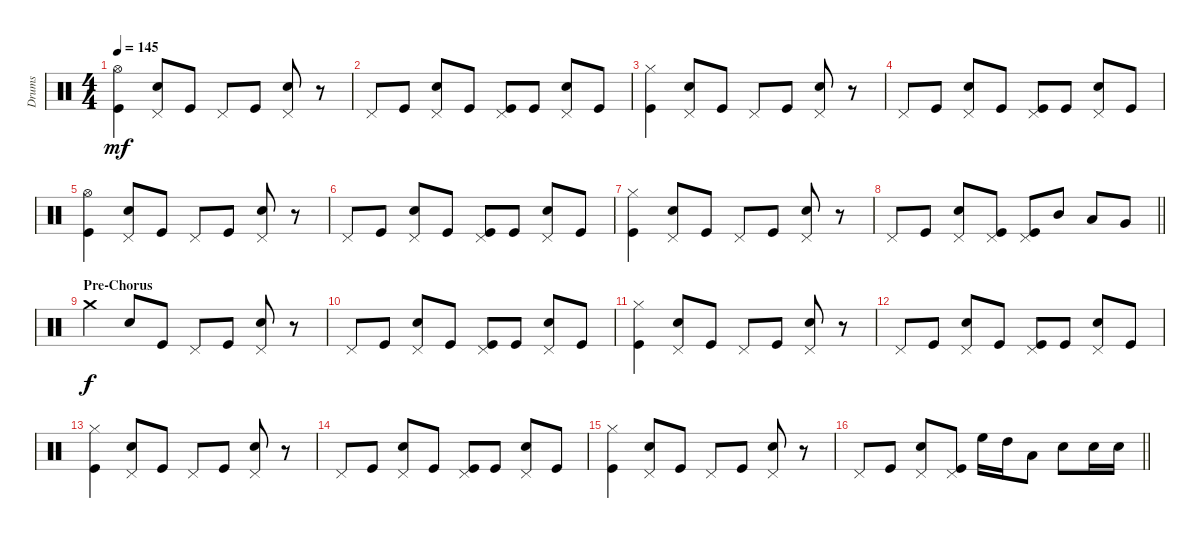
\track ("Drums" "Drums") {instrument percussion}
\staff {score}
\articulation defaults
\ts (4 4)
\tempo 145
\clef neutral
\ks c
("Hi-Hat (open)" "Kick (hit)").4{dy mf} ("Pedal Hi-Hat (hit)" "Snare (hit) 2").8 "Kick (hit)".8 "Pedal Hi-Hat (hit)".8 "Kick (hit)".8 ("Pedal Hi-Hat (hit)" "Snare (hit) 2").8 r.8 |
"Pedal Hi-Hat (hit)".8 "Kick (hit)".8 ("Pedal Hi-Hat (hit)" "Snare (hit) 2").8 "Kick (hit)".8 ("Pedal Hi-Hat (hit)" "Kick (hit)").8 "Kick (hit)".8 ("Pedal Hi-Hat (hit)" "Snare (hit) 2").8 "Kick (hit)".8 |
("Hi-Hat (closed)" "Kick (hit)").4 ("Pedal Hi-Hat (hit)" "Snare (hit) 2").8 "Kick (hit)".8 "Pedal Hi-Hat (hit)".8 "Kick (hit)".8 ("Pedal Hi-Hat (hit)" "Snare (hit) 2").8 r.8 |
"Pedal Hi-Hat (hit)".8 "Kick (hit)".8 ("Pedal Hi-Hat (hit)" "Snare (hit) 2").8 "Kick (hit)".8 ("Pedal Hi-Hat (hit)" "Kick (hit)").8 "Kick (hit)".8 ("Pedal Hi-Hat (hit)" "Snare (hit) 2").8 "Kick (hit)".8 |
("Hi-Hat (open)" "Kick (hit)").4 ("Pedal Hi-Hat (hit)" "Snare (hit) 2").8 "Kick (hit)".8 "Pedal Hi-Hat (hit)".8 "Kick (hit)".8 ("Pedal Hi-Hat (hit)" "Snare (hit) 2").8 r.8 |
"Pedal Hi-Hat (hit)".8 "Kick (hit)".8 ("Pedal Hi-Hat (hit)" "Snare (hit) 2").8 "Kick (hit)".8 ("Pedal Hi-Hat (hit)" "Kick (hit)").8 "Kick (hit)".8 ("Pedal Hi-Hat (hit)" "Snare (hit) 2").8 "Kick (hit)".8 |
("Hi-Hat (closed)" "Kick (hit)").4 ("Pedal Hi-Hat (hit)" "Snare (hit) 2").8 "Kick (hit)".8 "Pedal Hi-Hat (hit)".8 "Kick (hit)".8 ("Pedal Hi-Hat (hit)" "Snare (hit) 2").8 r.8 |
\barLineRight lightlight "Pedal Hi-Hat (hit)".8 "Kick (hit)".8
("Pedal Hi-Hat (hit)" "Snare (hit) 2").8 ("Pedal Hi-Hat (hit)" "Kick (hit)").8 ("Pedal Hi-Hat (hit)" "Kick (hit)").8 "Mid Tom (hit)".8 "Low Tom (hit)".8 "Very Low Tom (hit)".8 |
\section ("" "Pre-Chorus")
"Crash medium (hit)".4{dy f} "Snare (hit) 2".8 "Kick (hit)".8 "Pedal Hi-Hat (hit)".8 "Kick (hit)".8 ("Pedal Hi-Hat (hit)" "Snare (hit) 2").8 r.8 |
"Pedal Hi-Hat (hit)".8 "Kick (hit)".8 ("Pedal Hi-Hat (hit)" "Snare (hit) 2").8 "Kick (hit)".8 ("Pedal Hi-Hat (hit)" "Kick (hit)").8 "Kick (hit)".8 ("Pedal Hi-Hat (hit)" "Snare (hit) 2").8 "Kick (hit)".8 |
("Hi-Hat (closed)" "Kick (hit)").4 ("Pedal Hi-Hat (hit)" "Snare (hit) 2").8 "Kick (hit)".8 "Pedal Hi-Hat (hit)".8 "Kick (hit)".8 ("Pedal Hi-Hat (hit)" "Snare (hit) 2").8 r.8 |
"Pedal Hi-Hat (hit)".8 "Kick (hit)".8 ("Pedal Hi-Hat (hit)" "Snare (hit) 2").8 "Kick (hit)".8 ("Pedal Hi-Hat (hit)" "Kick (hit)").8 "Kick (hit)".8 ("Pedal Hi-Hat (hit)" "Snare (hit) 2").8 "Kick (hit)".8 |
("Hi-Hat (closed)" "Kick (hit)").4 ("Pedal Hi-Hat (hit)" "Snare (hit) 2").8 "Kick (hit)".8 "Pedal Hi-Hat (hit)".8 "Kick (hit)".8 ("Pedal Hi-Hat (hit)" "Snare (hit) 2").8 r.8 |
"Pedal Hi-Hat (hit)".8 "Kick (hit)".8 ("Pedal Hi-Hat (hit)" "Snare (hit) 2").8 "Kick (hit)".8 ("Pedal Hi-Hat (hit)" "Kick (hit)").8 "Kick (hit)".8 ("Pedal Hi-Hat (hit)" "Snare (hit) 2").8 "Kick (hit)".8 |
("Hi-Hat (closed)" "Kick (hit)").4 ("Pedal Hi-Hat (hit)" "Snare (hit) 2").8 "Kick (hit)".8 "Pedal Hi-Hat (hit)".8 "Kick (hit)".8 ("Pedal Hi-Hat (hit)" "Snare (hit) 2").8 r.8 |
\barLineRight lightlight "Pedal Hi-Hat (hit)".8 "Kick (hit)".8
("Pedal Hi-Hat (hit)" "Snare (hit) 2").8 ("Pedal Hi-Hat (hit)" "Kick (hit)").8 "High Floor Tom (hit)".16 "High Tom (hit)".16 "Low Tom (hit)".8 "Snare (hit) 2".8 "Snare (hit) 2".16 "Snare (hit) 2".16
